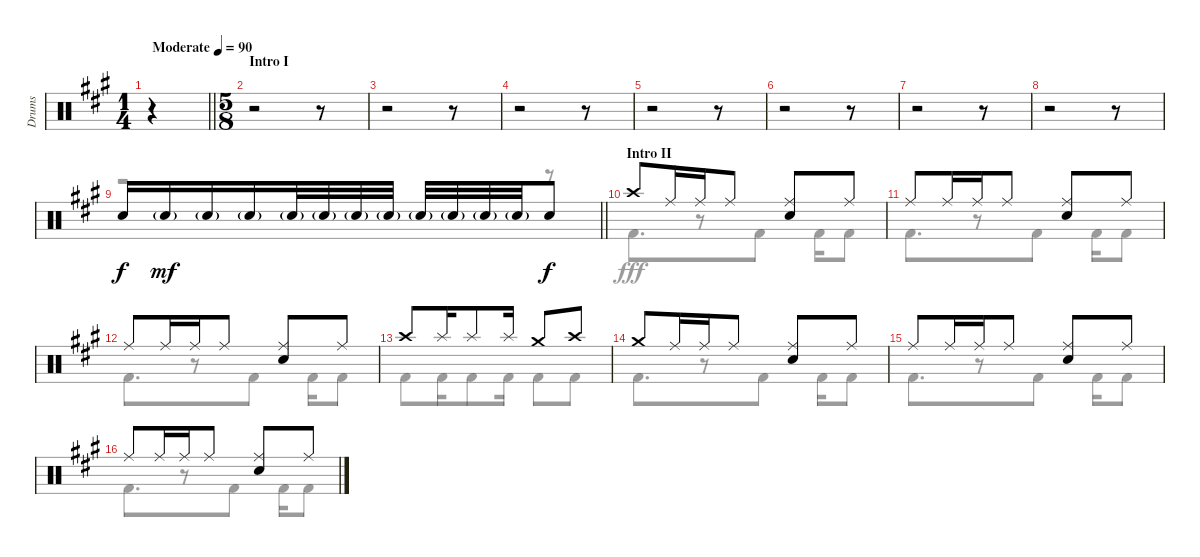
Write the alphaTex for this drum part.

\track ("Drums" "Drums") {instrument percussion}
\staff {score}
\articulation defaults
\voice
\ts (1 4)
\tempo (90 "Moderate")
\clef neutral
\barLineRight lightlight
\ks a
r.4{dy f} |
\ts (5 8)
\section ("" "Intro I")
r.2 r.8 |
r.2 r.8 |
r.2 r.8 |
r.2 r.8 |
r.2 r.8 |
r.2 r.8 |
r.2 r.8 |
\barLineRight lightlight "Snare (hit) 2".16 "Snare (hit) 2"{g}.16{dy mf} "Snare (hit) 2"{g}.16 "Snare (hit) 2"{g}.16 "Snare (hit) 2"{g}.32 "Snare (hit) 2"{g}.32 "Snare (hit) 2"{g}.32 "Snare (hit) 2"{g}.32 "Snare (hit) 2"{g}.32 "Snare (hit) 2"{g}.32 "Snare (hit) 2"{g}.32 "Snare (hit) 2"{g}.32 "Snare (hit) 2".8{dy f}
|
\section ("" "Intro II")
"Crash high (hit)".8 "Ride (middle)".16 "Ride (middle)".16 "Ride (middle)".8 ("Ride (middle)" "Snare (hit) 2").8 "Ride (middle)".8 |
"Ride (middle)".8 "Ride (middle)".16 "Ride (middle)".16 "Ride (middle)".8 ("Ride (middle)" "Snare (hit) 2").8 "Ride (middle)".8 |
"Ride (middle)".8 "Ride (middle)".16 "Ride (middle)".16 "Ride (middle)".8 ("Ride (middle)" "Snare (hit) 2").8 "Ride (middle)".8 |
"Crash high (hit)".8 "Splash (hit)".16 "Splash (hit)".8 "Splash (hit)".16 "Crash medium (hit)".8 "Crash high (hit)".8 |
"Crash medium (hit)".8 "Ride (middle)".16 "Ride (middle)".16 "Ride (middle)".8 ("Ride (middle)" "Snare (hit) 2").8 "Ride (middle)".8 |
"Ride (middle)".8 "Ride (middle)".16 "Ride (middle)".16 "Ride (middle)".8 ("Ride (middle)" "Snare (hit) 2").8 "Ride (middle)".8 |
"Ride (middle)".8 "Ride (middle)".16 "Ride (middle)".16 "Ride (middle)".8 ("Ride (middle)" "Snare (hit) 2").8 "Ride (middle)".8
\voice
\clef neutral
\ottava regular
\simile none
\barLineRight lightlight
\ks a
r.4{dy fff} |
r.2 r.8 |
r.2 r.8 |
r.2 r.8 |
r.2 r.8 |
r.2 r.8 |
r.2 r.8 |
r.2 r.8 |
\barLineRight lightlight
r.2 r.8 |
"Kick (hit) 2".8{d} r.8 "Kick (hit) 2".8 "Kick (hit) 2".16 "Kick (hit) 2".8 |
"Kick (hit) 2".8{d} r.8 "Kick (hit) 2".8 "Kick (hit) 2".16 "Kick (hit) 2".8 |
"Kick (hit) 2".8{d} r.8 "Kick (hit) 2".8 "Kick (hit) 2".16 "Kick (hit) 2".8 |
"Kick (hit) 2".8 "Kick (hit) 2".16 "Kick (hit) 2".8 "Kick (hit) 2".16 "Kick (hit) 2".8 "Kick (hit) 2".8 |
"Kick (hit) 2".8{d} r.8 "Kick (hit) 2".8 "Kick (hit) 2".16 "Kick (hit) 2".8 |
"Kick (hit) 2".8{d} r.8 "Kick (hit) 2".8 "Kick (hit) 2".16 "Kick (hit) 2".8 |
"Kick (hit) 2".8{d} r.8 "Kick (hit) 2".8 "Kick (hit) 2".16 "Kick (hit) 2".8
